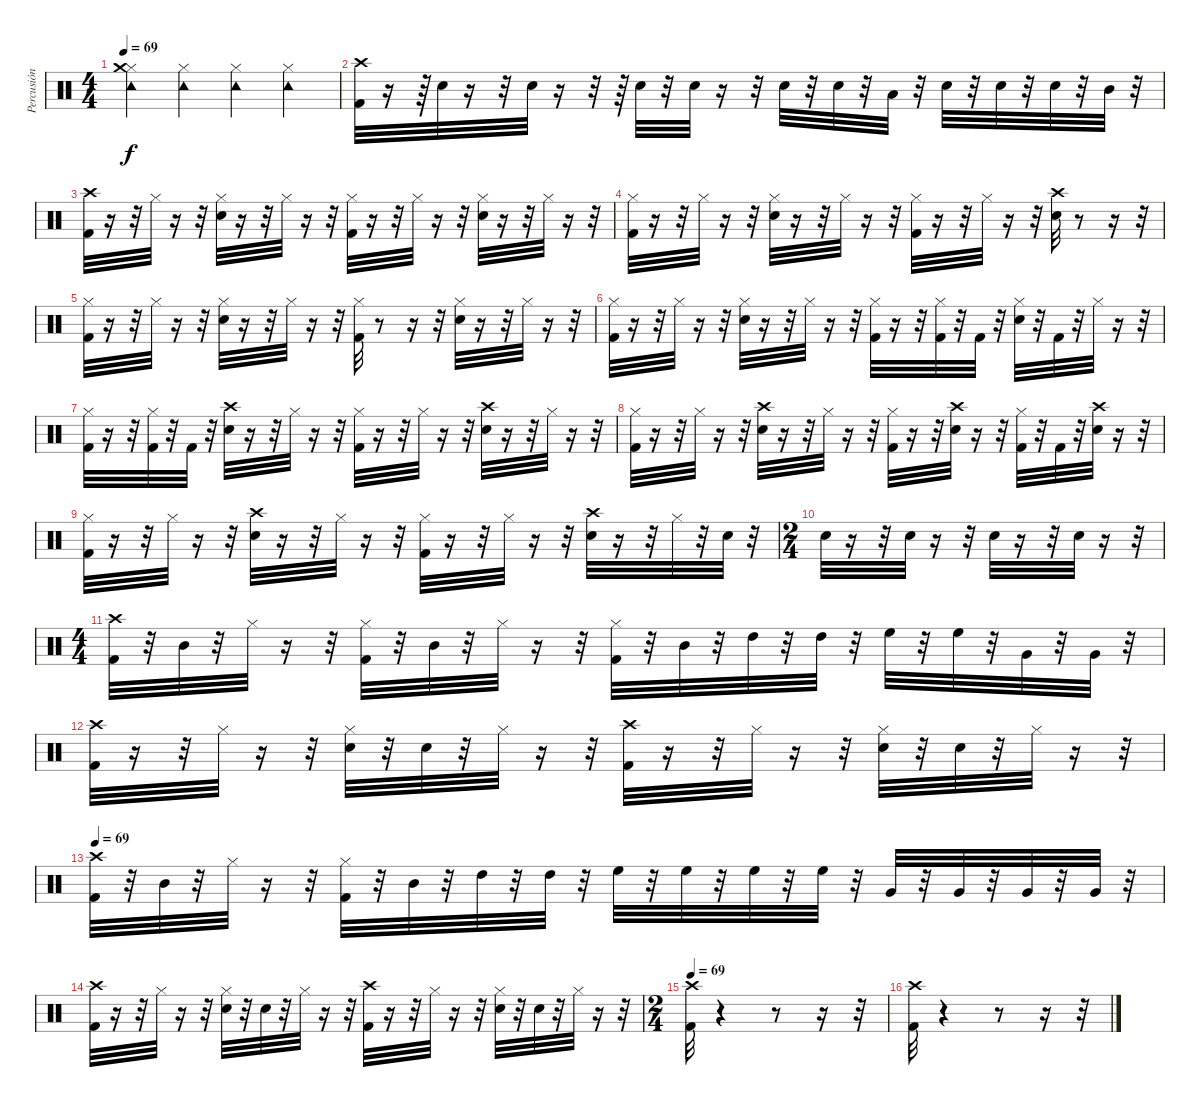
\track ("Percusión" "Percusión") {instrument percussion}
\staff {score}
\articulation defaults
\ts (4 4)
\tempo 69
\clef neutral
\ks c
("Tambourine (hit)" "Hi-Hat (closed)" "Crash medium (hit)").4{dy f} ("Tambourine (hit)" "Hi-Hat (closed)").4 ("Tambourine (hit)" "Hi-Hat (closed)").4 ("Tambourine (hit)" "Hi-Hat (closed)").4 |
("Kick (hit) 2" "Crash high (hit)").32 r.16 r.64 "Snare (hit) 2".32 r.16 r.32 "Snare (hit) 2".32 r.16 r.32 r.64 "Snare (hit) 2".32 r.32 "Snare (hit) 2".32 r.16 r.32 "Snare (hit) 2".32 r.32 "Snare (hit) 2".32 r.32 "Low Tom (hit)".32 r.32 "Snare (hit) 2".32 r.32 "Snare (hit) 2".32 r.32 "Snare (hit) 2".32 r.32 "Mid Tom (hit)".32 r.32 |
("Kick (hit) 2" "Crash high (hit)").32 r.16 r.32 "Hi-Hat (closed)".32 r.16 r.32 ("Snare (hit) 2" "Hi-Hat (closed)").32 r.16 r.32 "Hi-Hat (closed)".32 r.16 r.32 ("Hi-Hat (closed)" "Kick (hit) 2").32 r.16 r.32 "Hi-Hat (closed)".32 r.16 r.32 ("Snare (hit) 2" "Hi-Hat (closed)").32 r.16 r.32 "Hi-Hat (closed)".32 r.16 r.32 |
("Kick (hit) 2" "Hi-Hat (closed)").32 r.16 r.32 "Hi-Hat (closed)".32 r.16 r.32 ("Snare (hit) 2" "Hi-Hat (closed)").32 r.16 r.32 "Hi-Hat (closed)".32 r.16 r.32 ("Hi-Hat (closed)" "Kick (hit) 2").32 r.16 r.32 "Hi-Hat (closed)".32 r.16 r.32 ("Crash high (hit)" "Snare (hit) 2").32 r.8 r.16 r.32 |
("Kick (hit) 2" "Hi-Hat (closed)").32 r.16 r.32 "Hi-Hat (closed)".32 r.16 r.32 ("Snare (hit) 2" "Hi-Hat (closed)").32 r.16 r.32 "Hi-Hat (closed)".32 r.16 r.32 ("Kick (hit) 2" "Hi-Hat (closed)").32 r.8 r.16 r.32 ("Snare (hit) 2" "Hi-Hat (closed)").32 r.16 r.32 "Hi-Hat (closed)".32 r.16 r.32 |
("Hi-Hat (closed)" "Kick (hit) 2").32 r.16 r.32 "Hi-Hat (closed)".32 r.16 r.32 ("Snare (hit) 2" "Hi-Hat (closed)").32 r.16 r.32 "Hi-Hat (closed)".32 r.16 r.32 ("Hi-Hat (closed)" "Kick (hit) 2").32 r.16 r.32 ("Hi-Hat (closed)" "Kick (hit) 2").32 r.32 "Kick (hit) 2".32 r.32 ("Snare (hit) 2" "Hi-Hat (closed)").32 r.32 "Kick (hit) 2".32 r.32 "Hi-Hat (closed)".32 r.16 r.32 |
("Kick (hit) 2" "Hi-Hat (closed)").32 r.16 r.32 ("Kick (hit) 2" "Hi-Hat (closed)").32 r.32 "Kick (hit) 2".32 r.32 ("Crash high (hit)" "Snare (hit) 2").32 r.16 r.32 "Hi-Hat (closed)".32 r.16 r.32 ("Hi-Hat (closed)" "Kick (hit) 2").32 r.16 r.32 "Hi-Hat (closed)".32 r.16 r.32 ("Crash high (hit)" "Snare (hit) 2").32 r.16 r.32 "Hi-Hat (closed)".32 r.16 r.32 |
("Kick (hit) 2" "Hi-Hat (closed)").32 r.16 r.32 "Hi-Hat (closed)".32 r.16 r.32 ("Crash high (hit)" "Snare (hit) 2").32 r.16 r.32 "Hi-Hat (closed)".32 r.16 r.32 ("Hi-Hat (closed)" "Kick (hit) 2").32 r.16 r.32 ("Crash high (hit)" "Snare (hit) 2").32 r.16 r.32 ("Hi-Hat (closed)" "Kick (hit) 2").32 r.32 "Kick (hit) 2".32 r.32 ("Crash high (hit)" "Snare (hit) 2").32 r.16 r.32 |
("Kick (hit) 2" "Hi-Hat (closed)").32 r.16 r.32 "Hi-Hat (closed)".32 r.16 r.32 ("Crash high (hit)" "Snare (hit) 2").32 r.16 r.32 "Hi-Hat (closed)".32 r.16 r.32 ("Hi-Hat (closed)" "Kick (hit) 2").32 r.16 r.32 "Hi-Hat (closed)".32 r.16 r.32 ("Crash high (hit)" "Snare (hit) 2").32 r.16 r.32 "Hi-Hat (closed)".32 r.32 "Snare (hit) 2".32 r.32 |
\ts (2 4)
"Snare (hit) 2".32 r.16 r.32 "Snare (hit) 2".32 r.16 r.32 "Snare (hit) 2".32 r.16 r.32 "Snare (hit) 2".32 r.16 r.32 |
\ts (4 4)
("Crash high (hit)" "Kick (hit) 2").32 r.32 "Mid Tom (hit)".32 r.32 "Hi-Hat (closed)".32 r.16 r.32 ("Hi-Hat (closed)" "Kick (hit) 2").32 r.32 "Mid Tom (hit)".32 r.32 "Hi-Hat (closed)".32 r.16 r.32 ("Hi-Hat (closed)" "Kick (hit) 2").32 r.32 "Mid Tom (hit)".32 r.32 "High Tom (hit)".32 r.32 "High Tom (hit)".32 r.32 "High Floor Tom (hit)".32 r.32 "High Floor Tom (hit)".32 r.32 "Very Low Tom (hit)".32 r.32 "Very Low Tom (hit)".32 r.32 |
("Kick (hit) 2" "Crash high (hit)").32 r.16 r.32 "Hi-Hat (closed)".32 r.16 r.32 ("Snare (hit) 2" "Hi-Hat (closed)").32 r.32 "Snare (hit) 2".32 r.32 "Hi-Hat (closed)".32 r.16 r.32 ("Crash high (hit)" "Kick (hit) 2").32 r.16 r.32 "Hi-Hat (closed)".32 r.16 r.32 ("Snare (hit) 2" "Hi-Hat (closed)").32 r.32 "Snare (hit) 2".32 r.32 "Hi-Hat (closed)".32 r.16 r.32 |
\tempo 69
("Kick (hit) 2" "Crash high (hit)").32 r.32 "Mid Tom (hit)".32 r.32 "Hi-Hat (closed)".32 r.16 r.32 ("Hi-Hat (closed)" "Kick (hit) 2").32 r.32 "Mid Tom (hit)".32 r.32 "High Tom (hit)".32 r.32 "High Tom (hit)".32 r.32 "High Floor Tom (hit)".32 r.32 "High Floor Tom (hit)".32 r.32 "High Floor Tom (hit)".32 r.32 "High Floor Tom (hit)".32 r.32 "Very Low Tom (hit)".32 r.32 "Very Low Tom (hit)".32 r.32 "Very Low Tom (hit)".32 r.32 "Very Low Tom (hit)".32 r.32 |
("Kick (hit) 2" "Crash high (hit)").32 r.16 r.32 "Hi-Hat (closed)".32 r.16 r.32 ("Snare (hit) 2" "Hi-Hat (closed)").32 r.32 "Snare (hit) 2".32 r.32 "Hi-Hat (closed)".32 r.16 r.32 ("Crash high (hit)" "Kick (hit) 2").32 r.16 r.32 "Hi-Hat (closed)".32 r.16 r.32 ("Snare (hit) 2" "Hi-Hat (closed)").32 r.32 "Snare (hit) 2".32 r.32 "Hi-Hat (closed)".32 r.16 r.32 |
\ts (2 4)
\tempo 69
("Kick (hit) 2" "Crash high (hit)").32 r.4 r.8 r.16 r.32 |
("Crash high (hit)" "Kick (hit) 2").32 r.4 r.8 r.16 r.32
